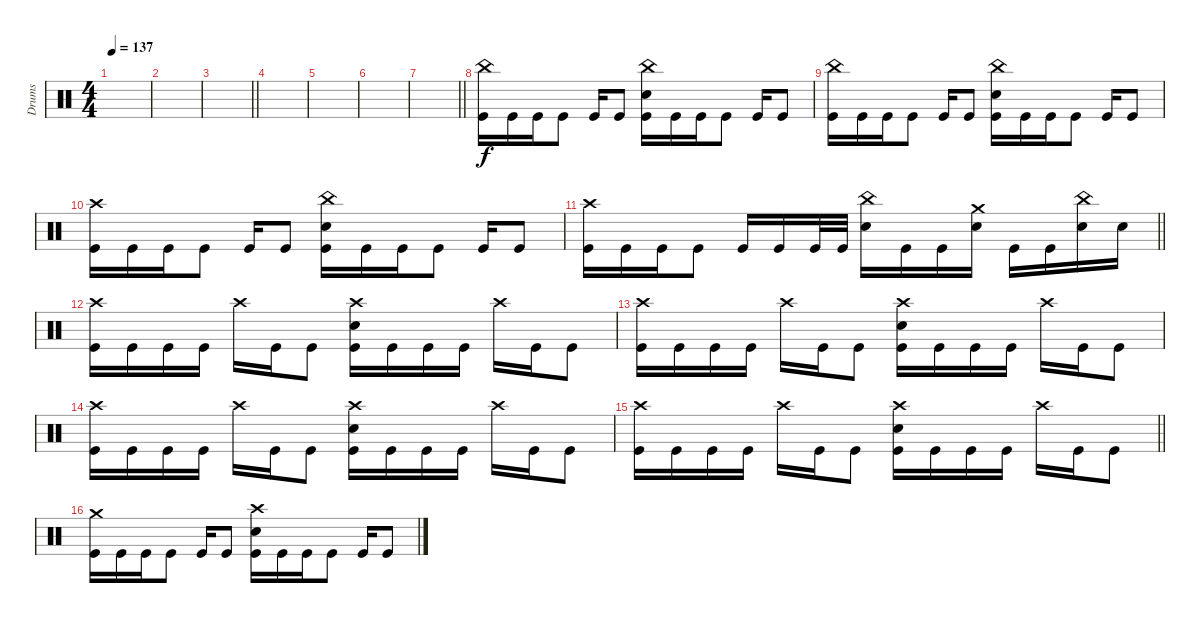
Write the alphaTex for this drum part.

\track ("Drums" "Drums") {instrument percussion}
\staff
\articulation defaults
\ts (4 4)
\tempo 137
\clef neutral
\ks c
|
|
\barLineRight lightlight
|
|
|
|
\barLineRight lightlight
|
("China (hit)" "Kick (hit)").16{dy f} "Kick (hit)".16 "Kick (hit)".16 "Kick (hit)".8 "Kick (hit)".16 "Kick (hit)".8 ("China (hit)" "Electric Snare (hit)" "Kick (hit)").16 "Kick (hit)".16 "Kick (hit)".16 "Kick (hit)".8 "Kick (hit)".16 "Kick (hit)".8 |
("China (hit)" "Kick (hit)").16 "Kick (hit)".16 "Kick (hit)".16 "Kick (hit)".8 "Kick (hit)".16 "Kick (hit)".8 ("China (hit)" "Electric Snare (hit)" "Kick (hit)").16 "Kick (hit)".16 "Kick (hit)".16 "Kick (hit)".8 "Kick (hit)".16 "Kick (hit)".8 |
("Crash high (hit)" "Kick (hit)").16 "Kick (hit)".16 "Kick (hit)".16 "Kick (hit)".8 "Kick (hit)".16 "Kick (hit)".8 ("China (hit)" "Electric Snare (hit)" "Kick (hit)").16 "Kick (hit)".16 "Kick (hit)".16 "Kick (hit)".8 "Kick (hit)".16 "Kick (hit)".8 |
\barLineRight lightlight
("Crash high (hit)" "Kick (hit)").16 "Kick (hit)".16 "Kick (hit)".16 "Kick (hit)".8 "Kick (hit)".16 "Kick (hit)".16 "Kick (hit)".32 "Kick (hit)".32 ("China (hit)" "Electric Snare (hit)").16 "Kick (hit)".16 "Kick (hit)".16 ("Crash medium (hit)" "Electric Snare (hit)").16 "Kick (hit)".16 "Kick (hit)".16 ("China (hit)" "Electric Snare (hit)").16 "Electric Snare (hit)".16 |
("Crash high (hit)" "Kick (hit)").16 "Kick (hit)".16 "Kick (hit)".16 "Kick (hit)".16 "Crash high (hit)".16 "Kick (hit)".16 "Kick (hit)".8 ("Crash high (hit)" "Electric Snare (hit)" "Kick (hit)").16 "Kick (hit)".16 "Kick (hit)".16 "Kick (hit)".16 "Crash high (hit)".16 "Kick (hit)".16 "Kick (hit)".8 |
("Crash high (hit)" "Kick (hit)").16 "Kick (hit)".16 "Kick (hit)".16 "Kick (hit)".16 "Crash high (hit)".16 "Kick (hit)".16 "Kick (hit)".8 ("Crash high (hit)" "Electric Snare (hit)" "Kick (hit)").16 "Kick (hit)".16 "Kick (hit)".16 "Kick (hit)".16 "Crash high (hit)".16 "Kick (hit)".16 "Kick (hit)".8 |
("Crash high (hit)" "Kick (hit)").16 "Kick (hit)".16 "Kick (hit)".16 "Kick (hit)".16 "Crash high (hit)".16 "Kick (hit)".16 "Kick (hit)".8 ("Crash high (hit)" "Electric Snare (hit)" "Kick (hit)").16 "Kick (hit)".16 "Kick (hit)".16 "Kick (hit)".16 "Crash high (hit)".16 "Kick (hit)".16 "Kick (hit)".8 |
\barLineRight lightlight
("Crash high (hit)" "Kick (hit)").16 "Kick (hit)".16 "Kick (hit)".16 "Kick (hit)".16 "Crash high (hit)".16 "Kick (hit)".16 "Kick (hit)".8 ("Crash high (hit)" "Electric Snare (hit)" "Kick (hit)").16 "Kick (hit)".16 "Kick (hit)".16 "Kick (hit)".16 "Crash high (hit)".16 "Kick (hit)".16 "Kick (hit)".8 |
("Crash medium (hit)" "Kick (hit)").16 "Kick (hit)".16 "Kick (hit)".16 "Kick (hit)".8 "Kick (hit)".16 "Kick (hit)".8 ("Crash high (hit)" "Electric Snare (hit)" "Kick (hit)").16 "Kick (hit)".16 "Kick (hit)".16 "Kick (hit)".8 "Kick (hit)".16 "Kick (hit)".8
